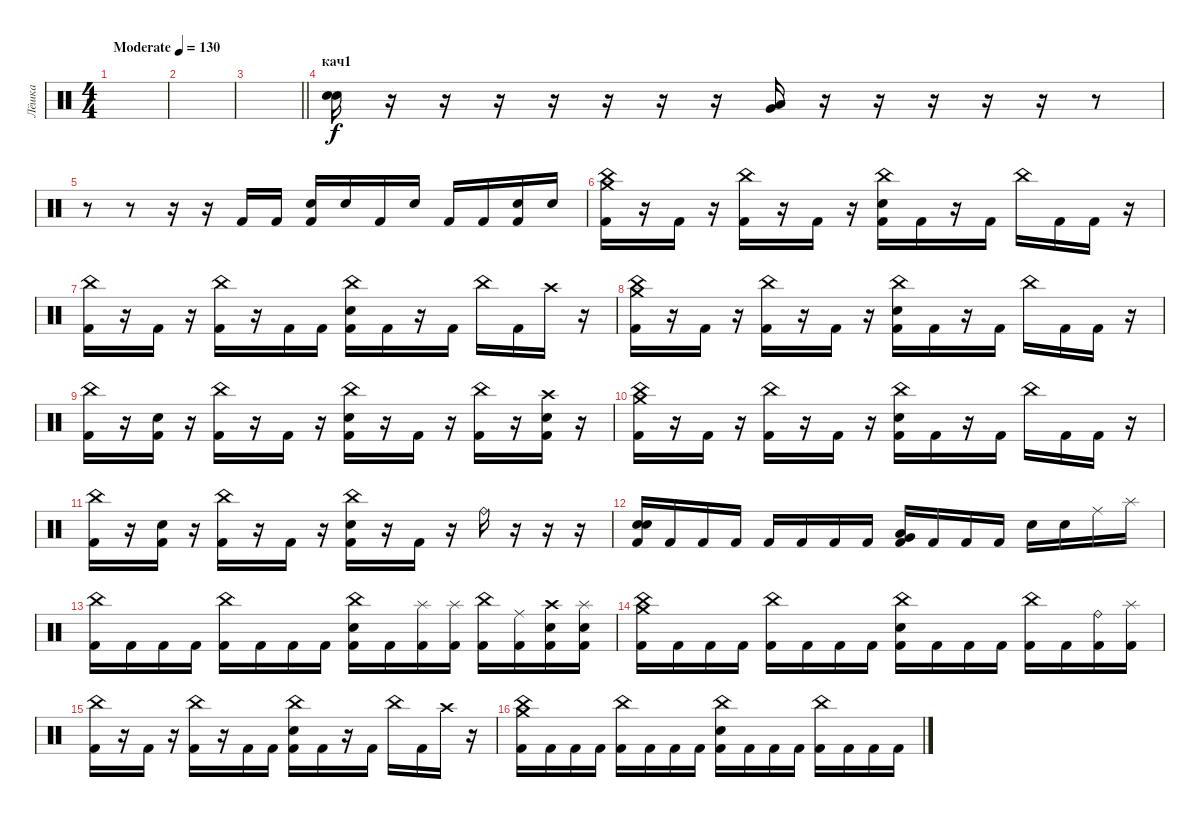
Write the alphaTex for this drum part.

\track ("Лёшка" "Лёшка") {instrument percussion}
\staff {score}
\articulation defaults
\ts (4 4)
\tempo (130 "Moderate")
\clef neutral
\ks c
|
|
\barLineRight lightlight
|
\section ("" "кач1")
("Electric Snare (hit)" "Electric Snare (hit)").16 r.16 r.16 r.16 r.16 r.16 r.16 r.16 ("Low Floor Tom (hit)" "Very Low Tom (hit)").16 r.16 r.16 r.16 r.16 r.16 r.8 |
r.8 r.8 r.16 r.16 "Kick (hit) 2".16 "Kick (hit) 2".16 ("Electric Snare (hit)" "Kick (hit) 2").16 "Electric Snare (hit)".16 "Kick (hit) 2".16 "Electric Snare (hit)".16 "Kick (hit) 2".16 "Kick (hit) 2".16 ("Electric Snare (hit)" "Kick (hit) 2").16 "Electric Snare (hit)".16 |
("China (hit)" "Crash medium (hit)" "Kick (hit) 2").16 r.16 "Kick (hit) 2".16 r.16 ("China (hit)" "Kick (hit) 2").16 r.16 "Kick (hit) 2".16 r.16 ("China (hit)" "Electric Snare (hit)" "Kick (hit) 2").16 "Kick (hit) 2".16 r.16 "Kick (hit) 2".16 "China (hit)".16 "Kick (hit) 2".16 "Kick (hit) 2".16 r.16 |
("China (hit)" "Kick (hit) 2").16 r.16 "Kick (hit) 2".16 r.16 ("China (hit)" "Kick (hit) 2").16 r.16 "Kick (hit) 2".16 "Kick (hit) 2".16 ("China (hit)" "Electric Snare (hit)" "Kick (hit) 2").16 "Kick (hit) 2".16 r.16 "Kick (hit) 2".16 "China (hit)".16 "Kick (hit) 2".16 "Crash high (hit)".16 r.16 |
("China (hit)" "Crash medium (hit)" "Kick (hit) 2").16 r.16 "Kick (hit) 2".16 r.16 ("China (hit)" "Kick (hit) 2").16 r.16 "Kick (hit) 2".16 r.16 ("China (hit)" "Electric Snare (hit)" "Kick (hit) 2").16 "Kick (hit) 2".16 r.16 "Kick (hit) 2".16 "China (hit)".16 "Kick (hit) 2".16 "Kick (hit) 2".16 r.16 |
("China (hit)" "Kick (hit) 2").16 r.16 ("Electric Snare (hit)" "Kick (hit) 2").16 r.16 ("China (hit)" "Kick (hit) 2").16 r.16 "Kick (hit) 2".16 r.16 ("China (hit)" "Electric Snare (hit)" "Kick (hit) 2").16 r.16 "Kick (hit) 2".16 r.16 ("China (hit)" "Kick (hit) 2").16 r.16 ("Crash high (hit)" "Electric Snare (hit)" "Kick (hit) 2").16 r.16 |
("China (hit)" "Crash medium (hit)" "Kick (hit) 2").16 r.16 "Kick (hit) 2".16 r.16 ("China (hit)" "Kick (hit) 2").16 r.16 "Kick (hit) 2".16 r.16 ("China (hit)" "Electric Snare (hit)" "Kick (hit) 2").16 "Kick (hit) 2".16 r.16 "Kick (hit) 2".16 "China (hit)".16 "Kick (hit) 2".16 "Kick (hit) 2".16 r.16 |
("China (hit)" "Kick (hit) 2").16 r.16 ("Electric Snare (hit)" "Kick (hit) 2").16 r.16 ("China (hit)" "Kick (hit) 2").16 r.16 "Kick (hit) 2".16 r.16 ("China (hit)" "Electric Snare (hit)" "Kick (hit) 2").16 r.16 "Kick (hit) 2".16 r.16 "Ride (bell)".16 r.16 r.16 r.16 |
("Electric Snare (hit)" "Electric Snare (hit)" "Kick (hit) 2").16 "Kick (hit) 2".16 "Kick (hit) 2".16 "Kick (hit) 2".16 "Kick (hit) 2".16 "Kick (hit) 2".16 "Kick (hit) 2".16 "Kick (hit) 2".16 ("Low Floor Tom (hit)" "Very Low Tom (hit)" "Kick (hit) 2").16 "Kick (hit) 2".16 "Kick (hit) 2".16 "Kick (hit) 2".16 "Electric Snare (hit)".16 "Electric Snare (hit)".16 "Ride (middle)".16 "Splash (hit)".16 |
("China (hit)" "Kick (hit) 2").16 "Kick (hit) 2".16 "Kick (hit) 2".16 "Kick (hit) 2".16 ("China (hit)" "Kick (hit) 2").16 "Kick (hit) 2".16 "Kick (hit) 2".16 "Kick (hit) 2".16 ("China (hit)" "Electric Snare (hit)" "Kick (hit) 2").16 "Kick (hit) 2".16 ("Splash (hit)" "Kick (hit) 2").16 ("Splash (hit)" "Kick (hit) 2").16 ("China (hit)" "Kick (hit) 2").16 ("Ride (middle)" "Kick (hit) 2").16 ("Crash high (hit)" "Electric Snare (hit)" "Kick (hit) 2").16 ("Splash (hit)" "Electric Snare (hit)" "Kick (hit) 2").16 |
("China (hit)" "Crash medium (hit)" "Kick (hit) 2").16 "Kick (hit) 2".16 "Kick (hit) 2".16 "Kick (hit) 2".16 ("China (hit)" "Kick (hit) 2").16 "Kick (hit) 2".16 "Kick (hit) 2".16 "Kick (hit) 2".16 ("China (hit)" "Electric Snare (hit)" "Kick (hit) 2").16 "Kick (hit) 2".16 "Kick (hit) 2".16 "Kick (hit) 2".16 ("China (hit)" "Kick (hit) 2").16 "Kick (hit) 2".16 ("Ride (bell)" "Kick (hit) 2").16 ("Splash (hit)" "Kick (hit) 2").16 |
("China (hit)" "Kick (hit) 2").16 r.16 "Kick (hit) 2".16 r.16 ("China (hit)" "Kick (hit) 2").16 r.16 "Kick (hit) 2".16 "Kick (hit) 2".16 ("China (hit)" "Electric Snare (hit)" "Kick (hit) 2").16 "Kick (hit) 2".16 r.16 "Kick (hit) 2".16 "China (hit)".16 "Kick (hit) 2".16 "Crash high (hit)".16 r.16 |
("China (hit)" "Crash medium (hit)" "Kick (hit) 2").16 "Kick (hit) 2".16 "Kick (hit) 2".16 "Kick (hit) 2".16 ("China (hit)" "Kick (hit) 2").16 "Kick (hit) 2".16 "Kick (hit) 2".16 "Kick (hit) 2".16 ("China (hit)" "Electric Snare (hit)" "Kick (hit) 2").16 "Kick (hit) 2".16 "Kick (hit) 2".16 "Kick (hit) 2".16 ("China (hit)" "Kick (hit) 2").16 "Kick (hit) 2".16 "Kick (hit) 2".16 "Kick (hit) 2".16
